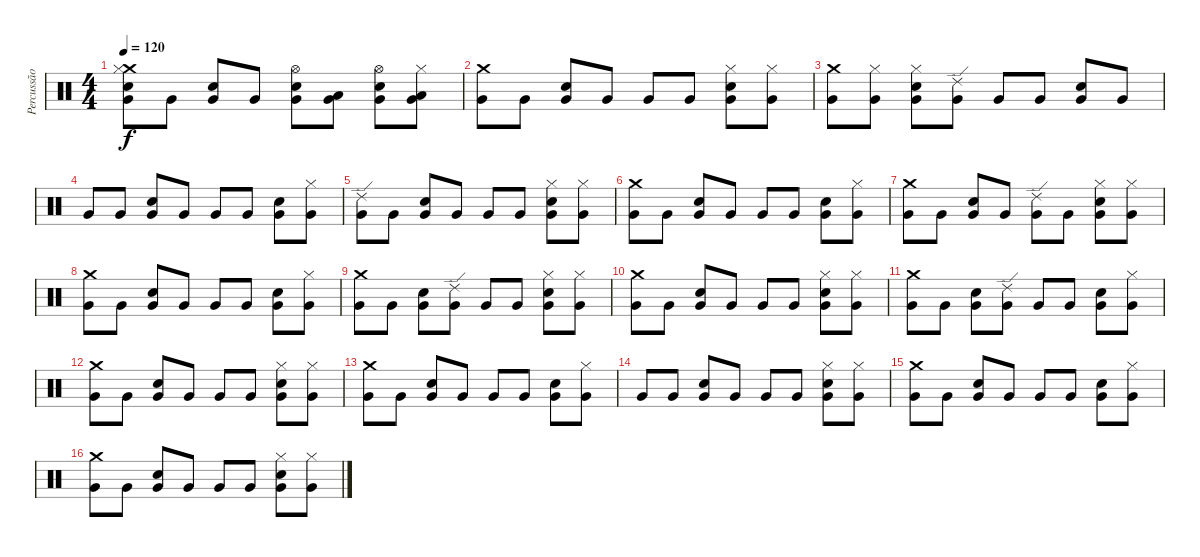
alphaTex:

\track ("Percussão" "Percussão") {instrument percussion}
\staff {score}
\articulation defaults
\ts (4 4)
\tempo 120
\clef neutral
\ks c
("Very Low Tom (hit)" "Crash medium (hit)" "Snare (hit) 2" "Hi-Hat (closed)").8{dy f} "Very Low Tom (hit)".8 ("Very Low Tom (hit)" "Snare (hit) 2").8 "Very Low Tom (hit)".8 ("Very Low Tom (hit)" "Hi-Hat (open)" "Snare (hit) 2").8 ("Very Low Tom (hit)" "Low Floor Tom (hit)").8 ("Very Low Tom (hit)" "Hi-Hat (open)" "Snare (hit) 2").8 ("Very Low Tom (hit)" "Hi-Hat (closed)" "Low Tom (hit)").8 |
("Very Low Tom (hit)" "Crash medium (hit)").8 "Very Low Tom (hit)".8 ("Very Low Tom (hit)" "Snare (hit) 2").8 "Very Low Tom (hit)".8 "Very Low Tom (hit)".8 "Very Low Tom (hit)".8 ("Very Low Tom (hit)" "Hi-Hat (closed)" "Snare (hit) 2").8 ("Very Low Tom (hit)" "Hi-Hat (closed)").8 |
("Very Low Tom (hit)" "Crash medium (hit)").8 ("Very Low Tom (hit)" "Hi-Hat (closed)").8 ("Very Low Tom (hit)" "Hi-Hat (closed)" "Snare (hit) 2").8 ("Very Low Tom (hit)" "Ride (edge) 2").8 "Very Low Tom (hit)".8 "Very Low Tom (hit)".8 ("Very Low Tom (hit)" "Snare (hit) 2").8 "Very Low Tom (hit)".8 |
"Very Low Tom (hit)".8 "Very Low Tom (hit)".8 ("Very Low Tom (hit)" "Snare (hit) 2").8 "Very Low Tom (hit)".8 "Very Low Tom (hit)".8 "Very Low Tom (hit)".8 ("Very Low Tom (hit)" "Snare (hit) 2").8 ("Very Low Tom (hit)" "Hi-Hat (closed)").8 |
("Very Low Tom (hit)" "Ride (edge) 2").8 "Very Low Tom (hit)".8 ("Very Low Tom (hit)" "Snare (hit) 2").8 "Very Low Tom (hit)".8 "Very Low Tom (hit)".8 "Very Low Tom (hit)".8 ("Very Low Tom (hit)" "Hi-Hat (closed)" "Snare (hit) 2").8 ("Very Low Tom (hit)" "Hi-Hat (closed)").8 |
("Very Low Tom (hit)" "Crash medium (hit)").8 "Very Low Tom (hit)".8 ("Very Low Tom (hit)" "Snare (hit) 2").8 "Very Low Tom (hit)".8 "Very Low Tom (hit)".8 "Very Low Tom (hit)".8 ("Very Low Tom (hit)" "Snare (hit) 2").8 ("Very Low Tom (hit)" "Hi-Hat (closed)").8 |
("Very Low Tom (hit)" "Crash medium (hit)").8 "Very Low Tom (hit)".8 ("Very Low Tom (hit)" "Snare (hit) 2").8 "Very Low Tom (hit)".8 ("Very Low Tom (hit)" "Ride (edge) 2").8 "Very Low Tom (hit)".8 ("Very Low Tom (hit)" "Hi-Hat (closed)" "Snare (hit) 2").8 ("Very Low Tom (hit)" "Hi-Hat (closed)").8 |
("Very Low Tom (hit)" "Crash medium (hit)").8 "Very Low Tom (hit)".8 ("Very Low Tom (hit)" "Snare (hit) 2").8 "Very Low Tom (hit)".8 "Very Low Tom (hit)".8 "Very Low Tom (hit)".8 ("Very Low Tom (hit)" "Snare (hit) 2").8 ("Very Low Tom (hit)" "Hi-Hat (closed)").8 |
("Very Low Tom (hit)" "Crash medium (hit)").8 "Very Low Tom (hit)".8 ("Very Low Tom (hit)" "Snare (hit) 2").8 ("Very Low Tom (hit)" "Ride (edge) 2").8 "Very Low Tom (hit)".8 "Very Low Tom (hit)".8 ("Very Low Tom (hit)" "Hi-Hat (closed)" "Snare (hit) 2").8 ("Very Low Tom (hit)" "Hi-Hat (closed)").8 |
("Very Low Tom (hit)" "Crash medium (hit)").8 "Very Low Tom (hit)".8 ("Very Low Tom (hit)" "Snare (hit) 2").8 "Very Low Tom (hit)".8 "Very Low Tom (hit)".8 "Very Low Tom (hit)".8 ("Very Low Tom (hit)" "Hi-Hat (closed)" "Snare (hit) 2").8 ("Very Low Tom (hit)" "Hi-Hat (closed)").8 |
("Very Low Tom (hit)" "Crash medium (hit)").8 "Very Low Tom (hit)".8 ("Very Low Tom (hit)" "Snare (hit) 2").8 ("Very Low Tom (hit)" "Ride (edge) 2").8 "Very Low Tom (hit)".8 "Very Low Tom (hit)".8 ("Very Low Tom (hit)" "Snare (hit) 2").8 ("Very Low Tom (hit)" "Hi-Hat (closed)").8 |
("Very Low Tom (hit)" "Crash medium (hit)").8 "Very Low Tom (hit)".8 ("Very Low Tom (hit)" "Snare (hit) 2").8 "Very Low Tom (hit)".8 "Very Low Tom (hit)".8 "Very Low Tom (hit)".8 ("Very Low Tom (hit)" "Hi-Hat (closed)" "Snare (hit) 2").8 ("Very Low Tom (hit)" "Hi-Hat (closed)").8 |
("Very Low Tom (hit)" "Crash medium (hit)").8 "Very Low Tom (hit)".8 ("Very Low Tom (hit)" "Snare (hit) 2").8 "Very Low Tom (hit)".8 "Very Low Tom (hit)".8 "Very Low Tom (hit)".8 ("Very Low Tom (hit)" "Snare (hit) 2").8 ("Very Low Tom (hit)" "Hi-Hat (closed)").8 |
"Very Low Tom (hit)".8 "Very Low Tom (hit)".8 ("Very Low Tom (hit)" "Snare (hit) 2").8 "Very Low Tom (hit)".8 "Very Low Tom (hit)".8 "Very Low Tom (hit)".8 ("Very Low Tom (hit)" "Hi-Hat (closed)" "Snare (hit) 2").8 ("Very Low Tom (hit)" "Hi-Hat (closed)").8 |
("Very Low Tom (hit)" "Crash medium (hit)").8 "Very Low Tom (hit)".8 ("Very Low Tom (hit)" "Snare (hit) 2").8 "Very Low Tom (hit)".8 "Very Low Tom (hit)".8 "Very Low Tom (hit)".8 ("Very Low Tom (hit)" "Snare (hit) 2").8 ("Very Low Tom (hit)" "Hi-Hat (closed)").8 |
("Very Low Tom (hit)" "Crash medium (hit)").8 "Very Low Tom (hit)".8 ("Very Low Tom (hit)" "Snare (hit) 2").8 "Very Low Tom (hit)".8 "Very Low Tom (hit)".8 "Very Low Tom (hit)".8 ("Very Low Tom (hit)" "Hi-Hat (closed)" "Snare (hit) 2").8 ("Very Low Tom (hit)" "Hi-Hat (closed)").8
